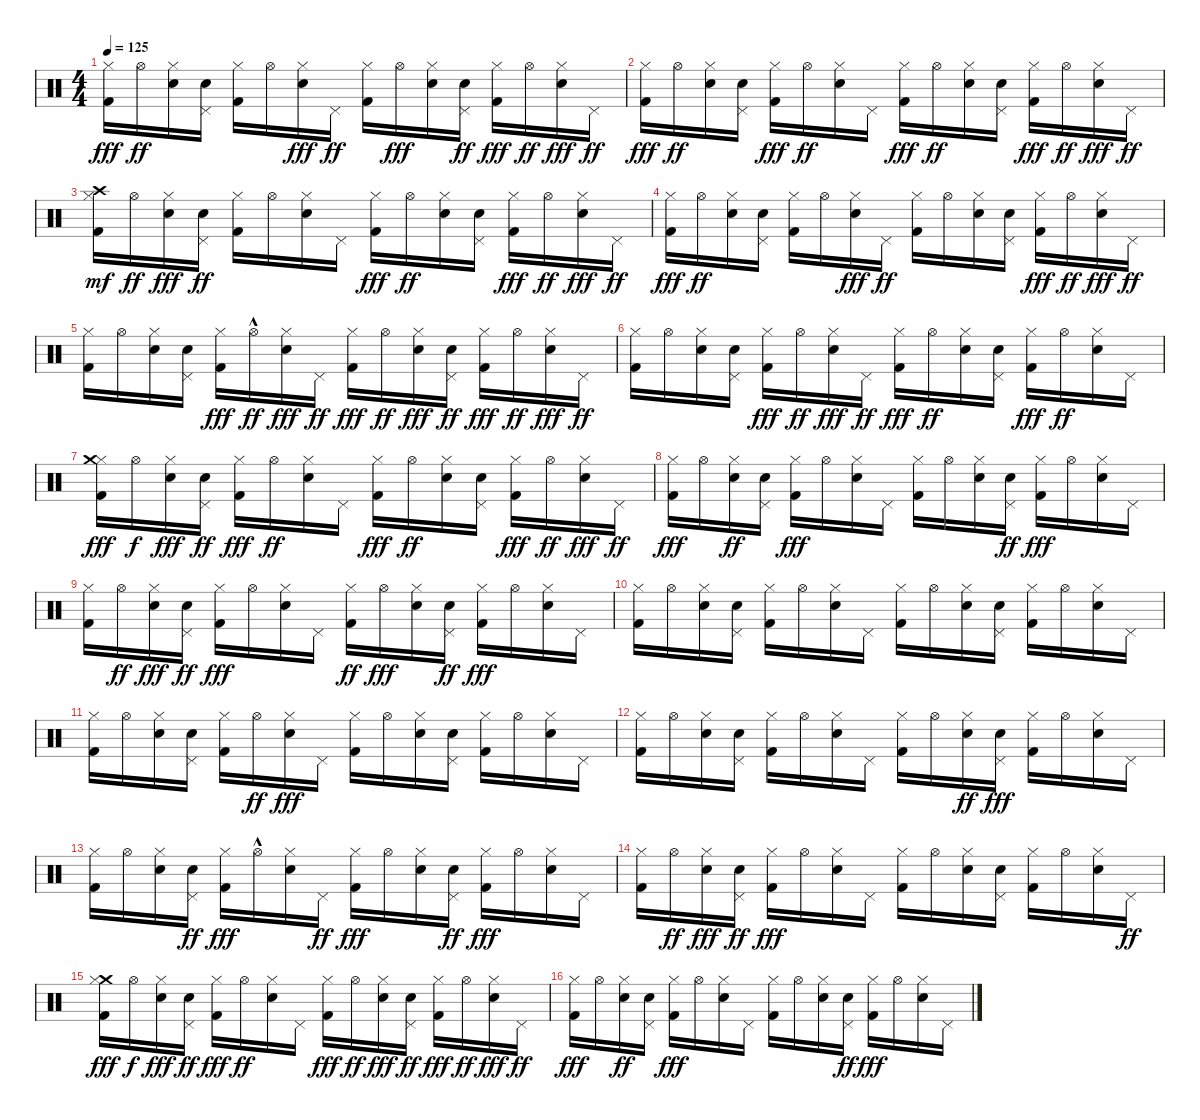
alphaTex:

\track "" {instrument percussion}
\staff {score}
\articulation defaults
\ts (4 4)
\tempo 125
\clef neutral
\ks c
("Hi-Hat (closed)" "Kick (hit) 2").16{dy fff} "Hi-Hat (open)".16{dy ff} ("Electric Snare (hit)" "Hi-Hat (closed)").16 ("Pedal Hi-Hat (hit)" "Electric Snare (hit)").16 ("Hi-Hat (closed)" "Kick (hit) 2").16 "Hi-Hat (open)".16 ("Hi-Hat (closed)" "Electric Snare (hit)").16{dy fff} "Pedal Hi-Hat (hit)".16{dy ff} ("Hi-Hat (closed)" "Kick (hit) 2").16 "Hi-Hat (open)".16{dy fff} ("Hi-Hat (closed)" "Electric Snare (hit)").16 ("Pedal Hi-Hat (hit)" "Electric Snare (hit)").16{dy ff} ("Hi-Hat (closed)" "Kick (hit) 2").16{dy fff} "Hi-Hat (open)".16{dy ff} ("Hi-Hat (closed)" "Electric Snare (hit)").16{dy fff} "Pedal Hi-Hat (hit)".16{dy ff} |
("Hi-Hat (closed)" "Kick (hit) 2").16{dy fff} "Hi-Hat (open)".16{dy ff} ("Electric Snare (hit)" "Hi-Hat (closed)").16 ("Electric Snare (hit)" "Pedal Hi-Hat (hit)").16 ("Hi-Hat (closed)" "Kick (hit) 2").16{dy fff} "Hi-Hat (open)".16{dy ff} ("Electric Snare (hit)" "Hi-Hat (closed)").16 "Pedal Hi-Hat (hit)".16 ("Kick (hit) 2" "Hi-Hat (closed)").16{dy fff} "Hi-Hat (open)".16{dy ff} ("Electric Snare (hit)" "Hi-Hat (closed)").16 ("Pedal Hi-Hat (hit)" "Electric Snare (hit)").16 ("Kick (hit) 2" "Hi-Hat (closed)").16{dy fff} "Hi-Hat (open)".16{dy ff} ("Hi-Hat (closed)" "Electric Snare (hit)").16{dy fff} "Pedal Hi-Hat (hit)".16{dy ff} |
("Kick (hit) 2" "Hi-Hat (closed)" "Crash high (hit)").16{dy mf} "Hi-Hat (open)".16{dy ff} ("Hi-Hat (closed)" "Electric Snare (hit)").16{dy fff} ("Electric Snare (hit)" "Pedal Hi-Hat (hit)").16{dy ff} ("Kick (hit) 2" "Hi-Hat (closed)").16 "Hi-Hat (open)".16 ("Hi-Hat (closed)" "Electric Snare (hit)").16 "Pedal Hi-Hat (hit)".16 ("Hi-Hat (closed)" "Kick (hit) 2").16{dy fff} "Hi-Hat (open)".16{dy ff} ("Electric Snare (hit)" "Hi-Hat (closed)").16 ("Pedal Hi-Hat (hit)" "Electric Snare (hit)").16 ("Kick (hit) 2" "Hi-Hat (closed)").16{dy fff} "Hi-Hat (open)".16{dy ff} ("Hi-Hat (closed)" "Electric Snare (hit)").16{dy fff} "Pedal Hi-Hat (hit)".16{dy ff} |
("Hi-Hat (closed)" "Kick (hit) 2").16{dy fff} "Hi-Hat (open)".16{dy ff} ("Hi-Hat (closed)" "Electric Snare (hit)").16 ("Pedal Hi-Hat (hit)" "Electric Snare (hit)").16 ("Kick (hit) 2" "Hi-Hat (closed)").16 "Hi-Hat (open)".16 ("Electric Snare (hit)" "Hi-Hat (closed)").16{dy fff} "Pedal Hi-Hat (hit)".16{dy ff} ("Kick (hit) 2" "Hi-Hat (closed)").16 "Hi-Hat (open)".16 ("Hi-Hat (closed)" "Electric Snare (hit)").16 ("Pedal Hi-Hat (hit)" "Electric Snare (hit)").16 ("Kick (hit) 2" "Hi-Hat (closed)").16{dy fff} "Hi-Hat (open)".16{dy ff} ("Hi-Hat (closed)" "Electric Snare (hit)").16{dy fff} "Pedal Hi-Hat (hit)".16{dy ff} |
("Kick (hit) 2" "Hi-Hat (closed)").16 "Hi-Hat (open)".16 ("Electric Snare (hit)" "Hi-Hat (closed)").16 ("Electric Snare (hit)" "Pedal Hi-Hat (hit)").16 ("Kick (hit) 2" "Hi-Hat (closed)").16{dy fff} "Hi-Hat (open)"{hac}.16{dy ff} ("Hi-Hat (closed)" "Electric Snare (hit)").16{dy fff} "Pedal Hi-Hat (hit)".16{dy ff} ("Hi-Hat (closed)" "Kick (hit) 2").16{dy fff} "Hi-Hat (open)".16{dy ff} ("Hi-Hat (closed)" "Electric Snare (hit)").16{dy fff} ("Electric Snare (hit)" "Pedal Hi-Hat (hit)").16{dy ff} ("Hi-Hat (closed)" "Kick (hit) 2").16{dy fff} "Hi-Hat (open)".16{dy ff} ("Hi-Hat (closed)" "Electric Snare (hit)").16{dy fff} "Pedal Hi-Hat (hit)".16{dy ff} |
("Kick (hit) 2" "Hi-Hat (closed)").16 "Hi-Hat (open)".16 ("Hi-Hat (closed)" "Electric Snare (hit)").16 ("Electric Snare (hit)" "Pedal Hi-Hat (hit)").16 ("Hi-Hat (closed)" "Kick (hit) 2").16{dy fff} "Hi-Hat (open)".16{dy ff} ("Hi-Hat (closed)" "Electric Snare (hit)").16{dy fff} "Pedal Hi-Hat (hit)".16{dy ff} ("Hi-Hat (closed)" "Kick (hit) 2").16{dy fff} "Hi-Hat (open)".16{dy ff} ("Electric Snare (hit)" "Hi-Hat (closed)").16 ("Pedal Hi-Hat (hit)" "Electric Snare (hit)").16 ("Hi-Hat (closed)" "Kick (hit) 2").16{dy fff} "Hi-Hat (open)".16{dy ff} ("Electric Snare (hit)" "Hi-Hat (closed)").16 "Pedal Hi-Hat (hit)".16 |
("Kick (hit) 2" "Hi-Hat (closed)" "Crash medium (hit)").16{dy fff} "Hi-Hat (open)".16{dy f} ("Electric Snare (hit)" "Hi-Hat (closed)").16{dy fff} ("Electric Snare (hit)" "Pedal Hi-Hat (hit)").16{dy ff} ("Kick (hit) 2" "Hi-Hat (closed)").16{dy fff} "Hi-Hat (open)".16{dy ff} ("Hi-Hat (closed)" "Electric Snare (hit)").16 "Pedal Hi-Hat (hit)".16 ("Kick (hit) 2" "Hi-Hat (closed)").16{dy fff} "Hi-Hat (open)".16{dy ff} ("Hi-Hat (closed)" "Electric Snare (hit)").16 ("Pedal Hi-Hat (hit)" "Electric Snare (hit)").16 ("Hi-Hat (closed)" "Kick (hit) 2").16{dy fff} "Hi-Hat (open)".16{dy ff} ("Electric Snare (hit)" "Hi-Hat (closed)").16{dy fff} "Pedal Hi-Hat (hit)".16{dy ff} |
("Hi-Hat (closed)" "Kick (hit) 2").16{dy fff} "Hi-Hat (open)".16 ("Hi-Hat (closed)" "Electric Snare (hit)").16{dy ff} ("Pedal Hi-Hat (hit)" "Electric Snare (hit)").16 ("Kick (hit) 2" "Hi-Hat (closed)").16{dy fff} "Hi-Hat (open)".16 ("Electric Snare (hit)" "Hi-Hat (closed)").16 "Pedal Hi-Hat (hit)".16 ("Kick (hit) 2" "Hi-Hat (closed)").16 "Hi-Hat (open)".16 ("Electric Snare (hit)" "Hi-Hat (closed)").16 ("Pedal Hi-Hat (hit)" "Electric Snare (hit)").16{dy ff} ("Hi-Hat (closed)" "Kick (hit) 2").16{dy fff} "Hi-Hat (open)".16 ("Hi-Hat (closed)" "Electric Snare (hit)").16 "Pedal Hi-Hat (hit)".16 |
("Hi-Hat (closed)" "Kick (hit) 2").16 "Hi-Hat (open)".16{dy ff} ("Electric Snare (hit)" "Hi-Hat (closed)").16{dy fff} ("Pedal Hi-Hat (hit)" "Electric Snare (hit)").16{dy ff} ("Hi-Hat (closed)" "Kick (hit) 2").16{dy fff} "Hi-Hat (open)".16 ("Electric Snare (hit)" "Hi-Hat (closed)").16 "Pedal Hi-Hat (hit)".16 ("Hi-Hat (closed)" "Kick (hit) 2").16{dy ff} "Hi-Hat (open)".16{dy fff} ("Electric Snare (hit)" "Hi-Hat (closed)").16 ("Pedal Hi-Hat (hit)" "Electric Snare (hit)").16{dy ff} ("Hi-Hat (closed)" "Kick (hit) 2").16{dy fff} "Hi-Hat (open)".16 ("Hi-Hat (closed)" "Electric Snare (hit)").16 "Pedal Hi-Hat (hit)".16 |
("Kick (hit) 2" "Hi-Hat (closed)").16 "Hi-Hat (open)".16 ("Electric Snare (hit)" "Hi-Hat (closed)").16 ("Electric Snare (hit)" "Pedal Hi-Hat (hit)").16 ("Hi-Hat (closed)" "Kick (hit) 2").16 "Hi-Hat (open)".16 ("Electric Snare (hit)" "Hi-Hat (closed)").16 "Pedal Hi-Hat (hit)".16 ("Hi-Hat (closed)" "Kick (hit) 2").16 "Hi-Hat (open)".16 ("Electric Snare (hit)" "Hi-Hat (closed)").16 ("Electric Snare (hit)" "Pedal Hi-Hat (hit)").16 ("Kick (hit) 2" "Hi-Hat (closed)").16 "Hi-Hat (open)".16 ("Electric Snare (hit)" "Hi-Hat (closed)").16 "Pedal Hi-Hat (hit)".16 |
("Hi-Hat (closed)" "Kick (hit) 2").16 "Hi-Hat (open)".16 ("Hi-Hat (closed)" "Electric Snare (hit)").16 ("Electric Snare (hit)" "Pedal Hi-Hat (hit)").16 ("Kick (hit) 2" "Hi-Hat (closed)").16 "Hi-Hat (open)".16{dy ff} ("Electric Snare (hit)" "Hi-Hat (closed)").16{dy fff} "Pedal Hi-Hat (hit)".16 ("Kick (hit) 2" "Hi-Hat (closed)").16 "Hi-Hat (open)".16 ("Hi-Hat (closed)" "Electric Snare (hit)").16 ("Pedal Hi-Hat (hit)" "Electric Snare (hit)").16 ("Kick (hit) 2" "Hi-Hat (closed)").16 "Hi-Hat (open)".16 ("Hi-Hat (closed)" "Electric Snare (hit)").16 "Pedal Hi-Hat (hit)".16 |
("Hi-Hat (closed)" "Kick (hit) 2").16 "Hi-Hat (open)".16 ("Hi-Hat (closed)" "Electric Snare (hit)").16 ("Electric Snare (hit)" "Pedal Hi-Hat (hit)").16 ("Kick (hit) 2" "Hi-Hat (closed)").16 "Hi-Hat (open)".16 ("Electric Snare (hit)" "Hi-Hat (closed)").16 "Pedal Hi-Hat (hit)".16 ("Kick (hit) 2" "Hi-Hat (closed)").16 "Hi-Hat (open)".16 ("Electric Snare (hit)" "Hi-Hat (closed)").16{dy ff} ("Electric Snare (hit)" "Pedal Hi-Hat (hit)").16{dy fff} ("Hi-Hat (closed)" "Kick (hit) 2").16 "Hi-Hat (open)".16 ("Electric Snare (hit)" "Hi-Hat (closed)").16 "Pedal Hi-Hat (hit)".16 |
("Hi-Hat (closed)" "Kick (hit) 2").16 "Hi-Hat (open)".16 ("Hi-Hat (closed)" "Electric Snare (hit)").16 ("Pedal Hi-Hat (hit)" "Electric Snare (hit)").16{dy ff} ("Hi-Hat (closed)" "Kick (hit) 2").16{dy fff} "Hi-Hat (open)"{hac}.16 ("Hi-Hat (closed)" "Electric Snare (hit)").16 "Pedal Hi-Hat (hit)".16{dy ff} ("Kick (hit) 2" "Hi-Hat (closed)").16{dy fff} "Hi-Hat (open)".16 ("Hi-Hat (closed)" "Electric Snare (hit)").16 ("Pedal Hi-Hat (hit)" "Electric Snare (hit)").16{dy ff} ("Hi-Hat (closed)" "Kick (hit) 2").16{dy fff} "Hi-Hat (open)".16 ("Hi-Hat (closed)" "Electric Snare (hit)").16 "Pedal Hi-Hat (hit)".16 |
("Hi-Hat (closed)" "Kick (hit) 2").16 "Hi-Hat (open)".16{dy ff} ("Hi-Hat (closed)" "Electric Snare (hit)").16{dy fff} ("Pedal Hi-Hat (hit)" "Electric Snare (hit)").16{dy ff} ("Hi-Hat (closed)" "Kick (hit) 2").16{dy fff} "Hi-Hat (open)".16 ("Hi-Hat (closed)" "Electric Snare (hit)").16 "Pedal Hi-Hat (hit)".16 ("Hi-Hat (closed)" "Kick (hit) 2").16 "Hi-Hat (open)".16 ("Hi-Hat (closed)" "Electric Snare (hit)").16 ("Electric Snare (hit)" "Pedal Hi-Hat (hit)").16 ("Hi-Hat (closed)" "Kick (hit) 2").16 "Hi-Hat (open)".16 ("Electric Snare (hit)" "Hi-Hat (closed)").16 "Pedal Hi-Hat (hit)".16{dy ff} |
("Crash medium (hit)" "Kick (hit) 2" "Hi-Hat (closed)").16{dy fff} "Hi-Hat (open)".16{dy f} ("Electric Snare (hit)" "Hi-Hat (closed)").16{dy fff} ("Electric Snare (hit)" "Pedal Hi-Hat (hit)").16{dy ff} ("Kick (hit) 2" "Hi-Hat (closed)").16{dy fff} "Hi-Hat (open)".16{dy ff} ("Hi-Hat (closed)" "Electric Snare (hit)").16 "Pedal Hi-Hat (hit)".16 ("Hi-Hat (closed)" "Kick (hit) 2").16{dy fff} "Hi-Hat (open)".16{dy ff} ("Electric Snare (hit)" "Hi-Hat (closed)").16{dy fff} ("Pedal Hi-Hat (hit)" "Electric Snare (hit)").16{dy ff} ("Hi-Hat (closed)" "Kick (hit) 2").16{dy fff} "Hi-Hat (open)".16{dy ff} ("Electric Snare (hit)" "Hi-Hat (closed)").16{dy fff} "Pedal Hi-Hat (hit)".16{dy ff} |
("Hi-Hat (closed)" "Kick (hit) 2").16{dy fff} "Hi-Hat (open)".16 ("Hi-Hat (closed)" "Electric Snare (hit)").16{dy ff} ("Pedal Hi-Hat (hit)" "Electric Snare (hit)").16 ("Kick (hit) 2" "Hi-Hat (closed)").16{dy fff} "Hi-Hat (open)".16 ("Hi-Hat (closed)" "Electric Snare (hit)").16 "Pedal Hi-Hat (hit)".16 ("Kick (hit) 2" "Hi-Hat (closed)").16 "Hi-Hat (open)".16 ("Electric Snare (hit)" "Hi-Hat (closed)").16 ("Pedal Hi-Hat (hit)" "Electric Snare (hit)").16{dy ff} ("Hi-Hat (closed)" "Kick (hit) 2").16{dy fff} "Hi-Hat (open)".16 ("Electric Snare (hit)" "Hi-Hat (closed)").16 "Pedal Hi-Hat (hit)".16
